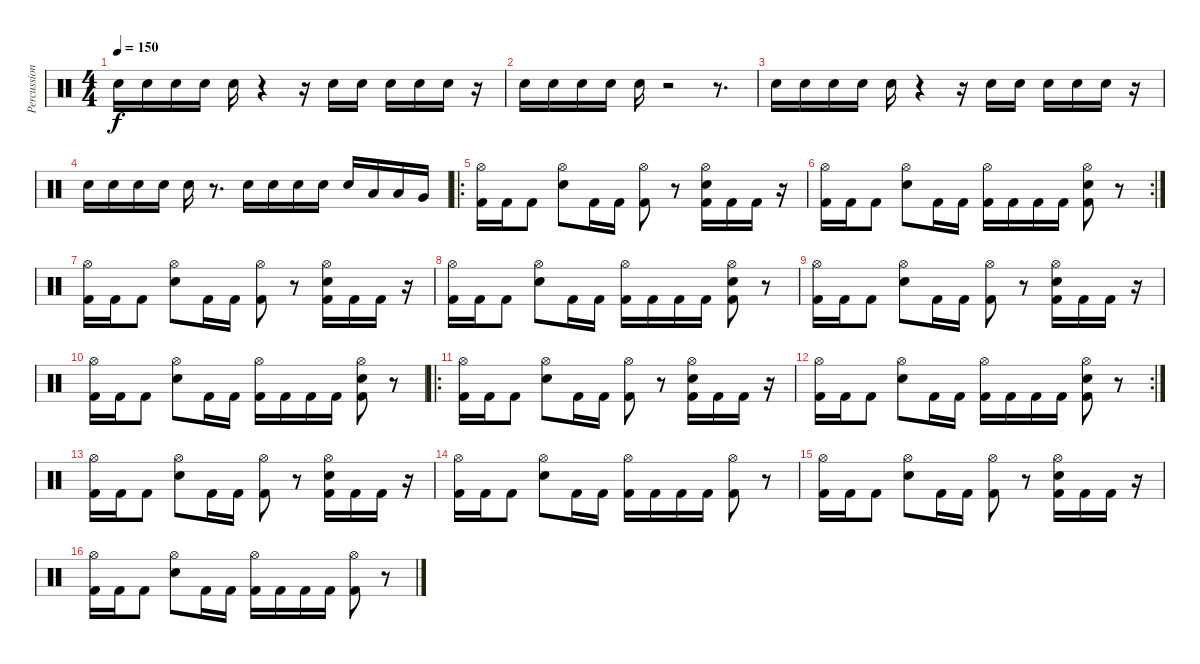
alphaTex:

\track ("Percussion" "Percussion") {instrument percussion}
\staff {score}
\articulation defaults
\ts (4 4)
\tempo 150
\clef neutral
\ks c "Electric Snare (hit)".16{dy f} "Electric Snare (hit)".16 "Electric Snare (hit)".16 "Electric Snare (hit)".16 "Electric Snare (hit)".16
r.4 r.16 "Electric Snare (hit)".16 "Electric Snare (hit)".16 "Electric Snare (hit)".16 "Electric Snare (hit)".16 "Electric Snare (hit)".16 r.16 |
"Electric Snare (hit)".16 "Electric Snare (hit)".16 "Electric Snare (hit)".16 "Electric Snare (hit)".16 "Electric Snare (hit)".16 r.2 r.8{d} |
"Electric Snare (hit)".16 "Electric Snare (hit)".16 "Electric Snare (hit)".16 "Electric Snare (hit)".16 "Electric Snare (hit)".16 r.4 r.16 "Electric Snare (hit)".16 "Electric Snare (hit)".16 "Electric Snare (hit)".16 "Electric Snare (hit)".16 "Electric Snare (hit)".16 r.16 |
"Electric Snare (hit)".16 "Electric Snare (hit)".16 "Electric Snare (hit)".16 "Electric Snare (hit)".16 "Electric Snare (hit)".16 r.8{d} "Electric Snare (hit)".16 "Electric Snare (hit)".16 "Electric Snare (hit)".16 "Electric Snare (hit)".16 "Electric Snare (hit)".16 "Low Tom (hit)".16 "Low Tom (hit)".16 "Very Low Tom (hit)".16 |
\ro
("Kick (hit) 2" "Hi-Hat (open)").16 "Kick (hit) 2".16 "Kick (hit) 2".8 ("Electric Snare (hit)" "Hi-Hat (open)").8 "Kick (hit) 2".16 "Kick (hit) 2".16 ("Kick (hit) 2" "Hi-Hat (open)").8 r.8 ("Kick (hit) 2" "Electric Snare (hit)" "Hi-Hat (open)").16 "Kick (hit) 2".16 "Kick (hit) 2".16 r.16 |
\rc 2
("Kick (hit) 2" "Hi-Hat (open)").16 "Kick (hit) 2".16 "Kick (hit) 2".8 ("Electric Snare (hit)" "Hi-Hat (open)").8 "Kick (hit) 2".16 "Kick (hit) 2".16 ("Kick (hit) 2" "Hi-Hat (open)").16 "Kick (hit) 2".16 "Kick (hit) 2".16 "Kick (hit) 2".16 ("Kick (hit) 2" "Electric Snare (hit)" "Hi-Hat (open)").8 r.8 |
("Kick (hit) 2" "Hi-Hat (open)").16 "Kick (hit) 2".16 "Kick (hit) 2".8 ("Electric Snare (hit)" "Hi-Hat (open)").8 "Kick (hit) 2".16 "Kick (hit) 2".16 ("Kick (hit) 2" "Hi-Hat (open)").8 r.8 ("Kick (hit) 2" "Electric Snare (hit)" "Hi-Hat (open)").16 "Kick (hit) 2".16 "Kick (hit) 2".16 r.16 |
("Kick (hit) 2" "Hi-Hat (open)").16 "Kick (hit) 2".16 "Kick (hit) 2".8 ("Electric Snare (hit)" "Hi-Hat (open)").8 "Kick (hit) 2".16 "Kick (hit) 2".16 ("Kick (hit) 2" "Hi-Hat (open)").16 "Kick (hit) 2".16 "Kick (hit) 2".16 "Kick (hit) 2".16 ("Kick (hit) 2" "Electric Snare (hit)" "Hi-Hat (open)").8 r.8 |
("Kick (hit) 2" "Hi-Hat (open)").16 "Kick (hit) 2".16 "Kick (hit) 2".8 ("Electric Snare (hit)" "Hi-Hat (open)").8 "Kick (hit) 2".16 "Kick (hit) 2".16 ("Kick (hit) 2" "Hi-Hat (open)").8 r.8 ("Kick (hit) 2" "Electric Snare (hit)" "Hi-Hat (open)").16 "Kick (hit) 2".16 "Kick (hit) 2".16 r.16 |
("Kick (hit) 2" "Hi-Hat (open)").16 "Kick (hit) 2".16 "Kick (hit) 2".8 ("Electric Snare (hit)" "Hi-Hat (open)").8 "Kick (hit) 2".16 "Kick (hit) 2".16 ("Kick (hit) 2" "Hi-Hat (open)").16 "Kick (hit) 2".16 "Kick (hit) 2".16 "Kick (hit) 2".16 ("Kick (hit) 2" "Electric Snare (hit)" "Hi-Hat (open)").8 r.8 |
\ro
("Kick (hit) 2" "Hi-Hat (open)").16 "Kick (hit) 2".16 "Kick (hit) 2".8 ("Electric Snare (hit)" "Hi-Hat (open)").8 "Kick (hit) 2".16 "Kick (hit) 2".16 ("Kick (hit) 2" "Hi-Hat (open)").8 r.8 ("Kick (hit) 2" "Electric Snare (hit)" "Hi-Hat (open)").16 "Kick (hit) 2".16 "Kick (hit) 2".16 r.16 |
\rc 2
("Kick (hit) 2" "Hi-Hat (open)").16 "Kick (hit) 2".16 "Kick (hit) 2".8 ("Electric Snare (hit)" "Hi-Hat (open)").8 "Kick (hit) 2".16 "Kick (hit) 2".16 ("Kick (hit) 2" "Hi-Hat (open)").16 "Kick (hit) 2".16 "Kick (hit) 2".16 "Kick (hit) 2".16 ("Kick (hit) 2" "Electric Snare (hit)" "Hi-Hat (open)").8 r.8 |
("Kick (hit) 2" "Hi-Hat (open)").16 "Kick (hit) 2".16 "Kick (hit) 2".8 ("Electric Snare (hit)" "Hi-Hat (open)").8 "Kick (hit) 2".16 "Kick (hit) 2".16 ("Kick (hit) 2" "Hi-Hat (open)").8 r.8 ("Kick (hit) 2" "Electric Snare (hit)" "Hi-Hat (open)").16 "Kick (hit) 2".16 "Kick (hit) 2".16 r.16 |
("Kick (hit) 2" "Hi-Hat (open)").16 "Kick (hit) 2".16 "Kick (hit) 2".8 ("Electric Snare (hit)" "Hi-Hat (open)").8 "Kick (hit) 2".16 "Kick (hit) 2".16 ("Kick (hit) 2" "Hi-Hat (open)").16 "Kick (hit) 2".16 "Kick (hit) 2".16 "Kick (hit) 2".16 ("Kick (hit) 2" "Hi-Hat (open)").8 r.8 |
("Kick (hit) 2" "Hi-Hat (open)").16 "Kick (hit) 2".16 "Kick (hit) 2".8 ("Electric Snare (hit)" "Hi-Hat (open)").8 "Kick (hit) 2".16 "Kick (hit) 2".16 ("Kick (hit) 2" "Hi-Hat (open)").8 r.8 ("Kick (hit) 2" "Electric Snare (hit)" "Hi-Hat (open)").16 "Kick (hit) 2".16 "Kick (hit) 2".16 r.16 |
("Kick (hit) 2" "Hi-Hat (open)").16 "Kick (hit) 2".16 "Kick (hit) 2".8 ("Electric Snare (hit)" "Hi-Hat (open)").8 "Kick (hit) 2".16 "Kick (hit) 2".16 ("Kick (hit) 2" "Hi-Hat (open)").16 "Kick (hit) 2".16 "Kick (hit) 2".16 "Kick (hit) 2".16 ("Kick (hit) 2" "Hi-Hat (open)").8 r.8
